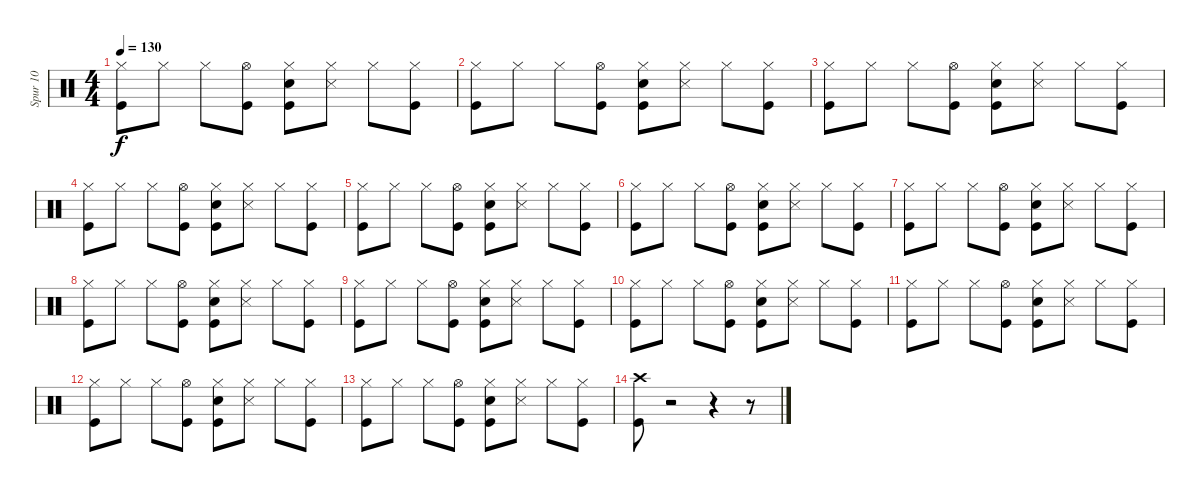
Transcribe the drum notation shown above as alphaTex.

\track ("Spur 10" "Spur 10") {instrument percussion}
\staff {score}
\articulation defaults
\ts (4 4)
\tempo 130
\clef neutral
\ks c
("Kick (hit)" "Hi-Hat (closed)").8{dy f} "Hi-Hat (closed)".8 "Hi-Hat (closed)".8 ("Kick (hit)" "Hi-Hat (open)").8 ("Snare (hit) 2" "Kick (hit)" "Hi-Hat (closed)").8 ("Snare (side stick) 3" "Hi-Hat (closed)").8 "Hi-Hat (closed)".8 ("Kick (hit)" "Hi-Hat (closed)").8 |
("Kick (hit)" "Hi-Hat (closed)").8 "Hi-Hat (closed)".8 "Hi-Hat (closed)".8 ("Kick (hit)" "Hi-Hat (open)").8 ("Snare (hit) 2" "Kick (hit)" "Hi-Hat (closed)").8 ("Snare (side stick) 3" "Hi-Hat (closed)").8 "Hi-Hat (closed)".8 ("Kick (hit)" "Hi-Hat (closed)").8 |
("Kick (hit)" "Hi-Hat (closed)").8 "Hi-Hat (closed)".8 "Hi-Hat (closed)".8 ("Kick (hit)" "Hi-Hat (open)").8 ("Snare (hit) 2" "Kick (hit)" "Hi-Hat (closed)").8 ("Snare (side stick) 3" "Hi-Hat (closed)").8 "Hi-Hat (closed)".8 ("Kick (hit)" "Hi-Hat (closed)").8 |
("Kick (hit)" "Hi-Hat (closed)").8 "Hi-Hat (closed)".8 "Hi-Hat (closed)".8 ("Kick (hit)" "Hi-Hat (open)").8 ("Snare (hit) 2" "Kick (hit)" "Hi-Hat (closed)").8 ("Snare (side stick) 3" "Hi-Hat (closed)").8 "Hi-Hat (closed)".8 ("Kick (hit)" "Hi-Hat (closed)").8 |
("Kick (hit)" "Hi-Hat (closed)").8 "Hi-Hat (closed)".8 "Hi-Hat (closed)".8 ("Kick (hit)" "Hi-Hat (open)").8 ("Snare (hit) 2" "Kick (hit)" "Hi-Hat (closed)").8 ("Snare (side stick) 3" "Hi-Hat (closed)").8 "Hi-Hat (closed)".8 ("Kick (hit)" "Hi-Hat (closed)").8 |
("Kick (hit)" "Hi-Hat (closed)").8 "Hi-Hat (closed)".8 "Hi-Hat (closed)".8 ("Kick (hit)" "Hi-Hat (open)").8 ("Snare (hit) 2" "Kick (hit)" "Hi-Hat (closed)").8 ("Snare (side stick) 3" "Hi-Hat (closed)").8 "Hi-Hat (closed)".8 ("Kick (hit)" "Hi-Hat (closed)").8 |
("Kick (hit)" "Hi-Hat (closed)").8 "Hi-Hat (closed)".8 "Hi-Hat (closed)".8 ("Kick (hit)" "Hi-Hat (open)").8 ("Snare (hit) 2" "Kick (hit)" "Hi-Hat (closed)").8 ("Snare (side stick) 3" "Hi-Hat (closed)").8 "Hi-Hat (closed)".8 ("Kick (hit)" "Hi-Hat (closed)").8 |
("Kick (hit)" "Hi-Hat (closed)").8 "Hi-Hat (closed)".8 "Hi-Hat (closed)".8 ("Kick (hit)" "Hi-Hat (open)").8 ("Snare (hit) 2" "Kick (hit)" "Hi-Hat (closed)").8 ("Snare (side stick) 3" "Hi-Hat (closed)").8 "Hi-Hat (closed)".8 ("Kick (hit)" "Hi-Hat (closed)").8 |
("Kick (hit)" "Hi-Hat (closed)").8 "Hi-Hat (closed)".8 "Hi-Hat (closed)".8 ("Kick (hit)" "Hi-Hat (open)").8 ("Snare (hit) 2" "Kick (hit)" "Hi-Hat (closed)").8 ("Snare (side stick) 3" "Hi-Hat (closed)").8 "Hi-Hat (closed)".8 ("Kick (hit)" "Hi-Hat (closed)").8 |
("Kick (hit)" "Hi-Hat (closed)").8 "Hi-Hat (closed)".8 "Hi-Hat (closed)".8 ("Kick (hit)" "Hi-Hat (open)").8 ("Snare (hit) 2" "Kick (hit)" "Hi-Hat (closed)").8 ("Snare (side stick) 3" "Hi-Hat (closed)").8 "Hi-Hat (closed)".8 ("Kick (hit)" "Hi-Hat (closed)").8 |
("Kick (hit)" "Hi-Hat (closed)").8 "Hi-Hat (closed)".8 "Hi-Hat (closed)".8 ("Kick (hit)" "Hi-Hat (open)").8 ("Snare (hit) 2" "Kick (hit)" "Hi-Hat (closed)").8 ("Snare (side stick) 3" "Hi-Hat (closed)").8 "Hi-Hat (closed)".8 ("Kick (hit)" "Hi-Hat (closed)").8 |
("Kick (hit)" "Hi-Hat (closed)").8 "Hi-Hat (closed)".8 "Hi-Hat (closed)".8 ("Kick (hit)" "Hi-Hat (open)").8 ("Snare (hit) 2" "Kick (hit)" "Hi-Hat (closed)").8 ("Snare (side stick) 3" "Hi-Hat (closed)").8 "Hi-Hat (closed)".8 ("Kick (hit)" "Hi-Hat (closed)").8 |
("Kick (hit)" "Hi-Hat (closed)").8 "Hi-Hat (closed)".8 "Hi-Hat (closed)".8 ("Kick (hit)" "Hi-Hat (open)").8 ("Snare (hit) 2" "Kick (hit)" "Hi-Hat (closed)").8 ("Snare (side stick) 3" "Hi-Hat (closed)").8 "Hi-Hat (closed)".8 ("Kick (hit)" "Hi-Hat (closed)").8 |
("Crash high (hit)" "Kick (hit)").8 r.2 r.4 r.8
